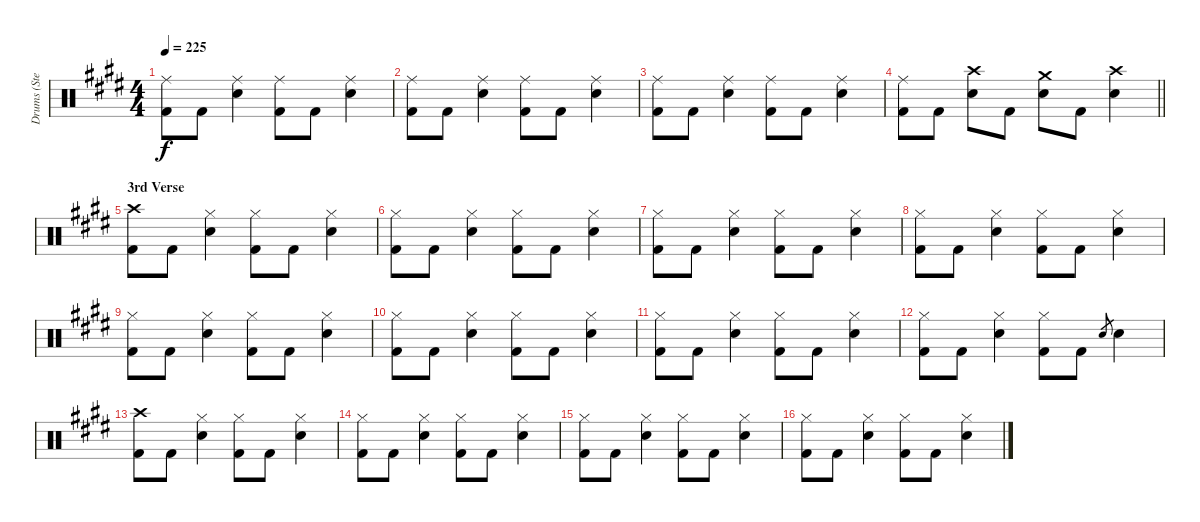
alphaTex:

\track ("Drums (Steven)" "Drums (Ste") {instrument percussion}
\staff {score}
\articulation defaults
\ts (4 4)
\tempo 225
\clef neutral
\ks e
("Ride (middle)" "Kick (hit) 2").8{dy f} "Kick (hit) 2".8 ("Ride (middle)" "Snare (hit) 2").4 ("Ride (middle)" "Kick (hit) 2").8 "Kick (hit) 2".8 ("Ride (middle)" "Snare (hit) 2").4 |
("Ride (middle)" "Kick (hit) 2").8 "Kick (hit) 2".8 ("Ride (middle)" "Snare (hit) 2").4 ("Ride (middle)" "Kick (hit) 2").8 "Kick (hit) 2".8 ("Ride (middle)" "Snare (hit) 2").4 |
("Ride (middle)" "Kick (hit) 2").8 "Kick (hit) 2".8 ("Ride (middle)" "Snare (hit) 2").4 ("Ride (middle)" "Kick (hit) 2").8 "Kick (hit) 2".8 ("Ride (middle)" "Snare (hit) 2").4 |
\barLineRight lightlight
("Ride (middle)" "Kick (hit) 2").8 "Kick (hit) 2".8 ("Crash high (hit)" "Snare (hit) 2").8 "Kick (hit) 2".8 ("Crash medium (hit)" "Snare (hit) 2").8 "Kick (hit) 2".8 ("Crash high (hit)" "Snare (hit) 2").4 |
\section ("" "3rd Verse")
("Crash high (hit)" "Kick (hit) 2").8 "Kick (hit) 2".8 ("Hi-Hat (closed)" "Snare (hit) 2").4 ("Hi-Hat (closed)" "Kick (hit) 2").8 "Kick (hit) 2".8 ("Hi-Hat (closed)" "Snare (hit) 2").4 |
("Hi-Hat (closed)" "Kick (hit) 2").8 "Kick (hit) 2".8 ("Hi-Hat (closed)" "Snare (hit) 2").4 ("Hi-Hat (closed)" "Kick (hit) 2").8 "Kick (hit) 2".8 ("Hi-Hat (closed)" "Snare (hit) 2").4 |
("Hi-Hat (closed)" "Kick (hit) 2").8 "Kick (hit) 2".8 ("Hi-Hat (closed)" "Snare (hit) 2").4 ("Hi-Hat (closed)" "Kick (hit) 2").8 "Kick (hit) 2".8 ("Hi-Hat (closed)" "Snare (hit) 2").4 |
("Hi-Hat (closed)" "Kick (hit) 2").8 "Kick (hit) 2".8 ("Hi-Hat (closed)" "Snare (hit) 2").4 ("Hi-Hat (closed)" "Kick (hit) 2").8 "Kick (hit) 2".8 ("Hi-Hat (closed)" "Snare (hit) 2").4 |
("Hi-Hat (closed)" "Kick (hit) 2").8 "Kick (hit) 2".8 ("Hi-Hat (closed)" "Snare (hit) 2").4 ("Hi-Hat (closed)" "Kick (hit) 2").8 "Kick (hit) 2".8 ("Hi-Hat (closed)" "Snare (hit) 2").4 |
("Hi-Hat (closed)" "Kick (hit) 2").8 "Kick (hit) 2".8 ("Hi-Hat (closed)" "Snare (hit) 2").4 ("Hi-Hat (closed)" "Kick (hit) 2").8 "Kick (hit) 2".8 ("Hi-Hat (closed)" "Snare (hit) 2").4 |
("Hi-Hat (closed)" "Kick (hit) 2").8 "Kick (hit) 2".8 ("Hi-Hat (closed)" "Snare (hit) 2").4 ("Hi-Hat (closed)" "Kick (hit) 2").8 "Kick (hit) 2".8 ("Hi-Hat (closed)" "Snare (hit) 2").4 |
("Hi-Hat (closed)" "Kick (hit) 2").8 "Kick (hit) 2".8 ("Hi-Hat (closed)" "Snare (hit) 2").4 ("Hi-Hat (closed)" "Kick (hit) 2").8 "Kick (hit) 2".8 "Snare (hit) 2".8{gr} "Snare (hit) 2".4 |
("Crash high (hit)" "Kick (hit) 2").8 "Kick (hit) 2".8 ("Hi-Hat (closed)" "Snare (hit) 2").4 ("Hi-Hat (closed)" "Kick (hit) 2").8 "Kick (hit) 2".8 ("Hi-Hat (closed)" "Snare (hit) 2").4 |
("Hi-Hat (closed)" "Kick (hit) 2").8 "Kick (hit) 2".8 ("Hi-Hat (closed)" "Snare (hit) 2").4 ("Hi-Hat (closed)" "Kick (hit) 2").8 "Kick (hit) 2".8 ("Hi-Hat (closed)" "Snare (hit) 2").4 |
("Hi-Hat (closed)" "Kick (hit) 2").8 "Kick (hit) 2".8 ("Hi-Hat (closed)" "Snare (hit) 2").4 ("Hi-Hat (closed)" "Kick (hit) 2").8 "Kick (hit) 2".8 ("Hi-Hat (closed)" "Snare (hit) 2").4 |
("Hi-Hat (closed)" "Kick (hit) 2").8 "Kick (hit) 2".8 ("Hi-Hat (closed)" "Snare (hit) 2").4 ("Hi-Hat (closed)" "Kick (hit) 2").8 "Kick (hit) 2".8 ("Hi-Hat (closed)" "Snare (hit) 2").4
